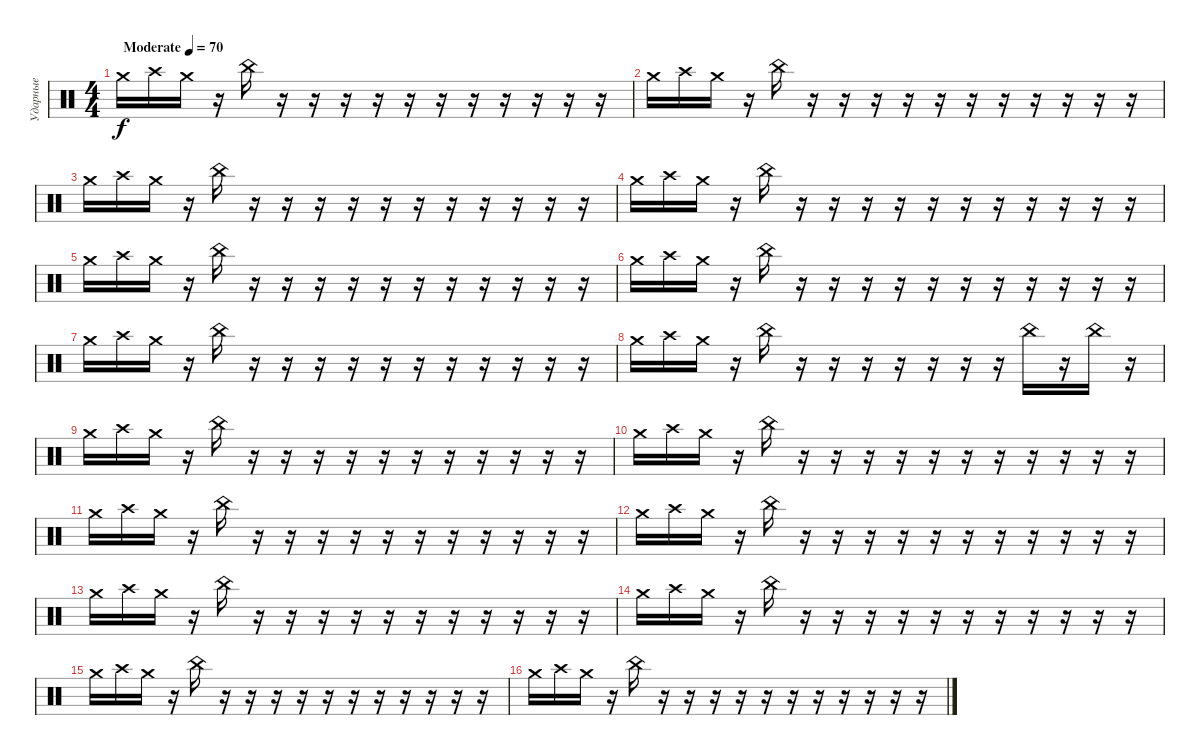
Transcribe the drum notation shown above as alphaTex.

\track ("Ударные" "Ударные") {instrument percussion}
\staff {score}
\articulation defaults
\ts (4 4)
\tempo (70 "Moderate")
\clef neutral
\ks c "Crash medium (hit)".16{dy f volume 4} "Crash high (hit)".16 "Crash medium (hit)".16
r.16 "China (hit)".16 r.16 r.16 r.16 r.16 r.16 r.16 r.16 r.16 r.16 r.16 r.16 |
"Crash medium (hit)".16 "Crash high (hit)".16 "Crash medium (hit)".16 r.16 "China (hit)".16 r.16 r.16 r.16 r.16 r.16 r.16 r.16 r.16 r.16 r.16 r.16 |
"Crash medium (hit)".16 "Crash high (hit)".16 "Crash medium (hit)".16 r.16 "China (hit)".16 r.16 r.16 r.16 r.16 r.16 r.16 r.16 r.16 r.16 r.16 r.16 |
"Crash medium (hit)".16 "Crash high (hit)".16 "Crash medium (hit)".16 r.16 "China (hit)".16 r.16 r.16 r.16 r.16 r.16 r.16 r.16 r.16 r.16 r.16 r.16 |
"Crash medium (hit)".16{volume 4} "Crash high (hit)".16 "Crash medium (hit)".16 r.16 "China (hit)".16 r.16 r.16 r.16 r.16 r.16 r.16 r.16 r.16 r.16 r.16 r.16 |
"Crash medium (hit)".16 "Crash high (hit)".16 "Crash medium (hit)".16 r.16 "China (hit)".16 r.16 r.16 r.16 r.16 r.16 r.16 r.16 r.16 r.16 r.16 r.16 |
"Crash medium (hit)".16 "Crash high (hit)".16 "Crash medium (hit)".16 r.16 "China (hit)".16 r.16 r.16 r.16 r.16 r.16 r.16 r.16 r.16 r.16 r.16 r.16 |
"Crash medium (hit)".16 "Crash high (hit)".16 "Crash medium (hit)".16 r.16 "China (hit)".16 r.16 r.16 r.16 r.16 r.16 r.16 r.16 "China (hit)".16 r.16 "China (hit)".16 r.16 |
"Crash medium (hit)".16{volume 4} "Crash high (hit)".16 "Crash medium (hit)".16 r.16 "China (hit)".16 r.16 r.16 r.16 r.16 r.16 r.16 r.16 r.16 r.16 r.16 r.16 |
"Crash medium (hit)".16 "Crash high (hit)".16 "Crash medium (hit)".16 r.16 "China (hit)".16 r.16 r.16 r.16 r.16 r.16 r.16 r.16 r.16 r.16 r.16 r.16 |
"Crash medium (hit)".16 "Crash high (hit)".16 "Crash medium (hit)".16 r.16 "China (hit)".16 r.16 r.16 r.16 r.16 r.16 r.16 r.16 r.16 r.16 r.16 r.16 |
"Crash medium (hit)".16 "Crash high (hit)".16 "Crash medium (hit)".16 r.16 "China (hit)".16 r.16 r.16 r.16 r.16 r.16 r.16 r.16 r.16 r.16 r.16 r.16 |
"Crash medium (hit)".16 "Crash high (hit)".16 "Crash medium (hit)".16 r.16 "China (hit)".16 r.16 r.16 r.16 r.16 r.16 r.16 r.16 r.16 r.16 r.16 r.16 |
"Crash medium (hit)".16 "Crash high (hit)".16 "Crash medium (hit)".16 r.16 "China (hit)".16 r.16 r.16 r.16 r.16 r.16 r.16 r.16 r.16 r.16 r.16 r.16 |
"Crash medium (hit)".16 "Crash high (hit)".16 "Crash medium (hit)".16 r.16 "China (hit)".16 r.16 r.16 r.16 r.16 r.16 r.16 r.16 r.16 r.16 r.16 r.16 |
"Crash medium (hit)".16 "Crash high (hit)".16 "Crash medium (hit)".16 r.16 "China (hit)".16 r.16 r.16 r.16 r.16 r.16 r.16 r.16 r.16 r.16 r.16 r.16
